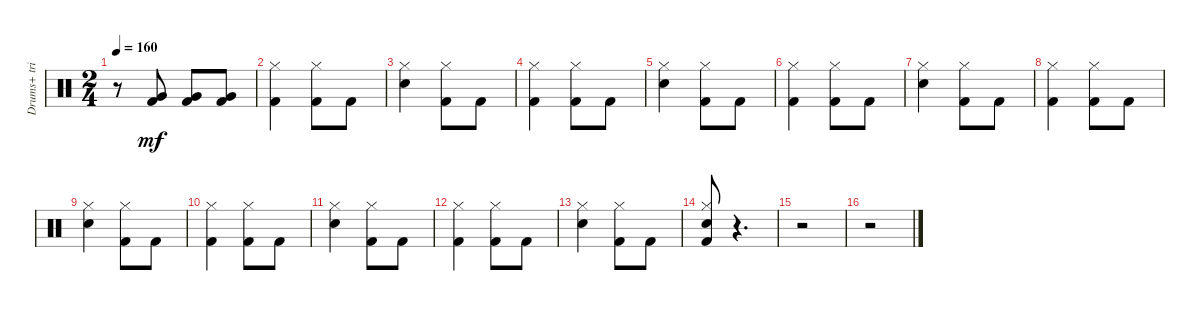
\track ("Drums+ triangle" "Drums+ tri") {instrument percussion}
\staff {score}
\articulation defaults
\ts (2 4)
\tempo 160
\clef neutral
\ks c
r.8{dy mf} ("Kick (hit) 2" "Very Low Tom (hit)").8 ("Kick (hit) 2" "Very Low Tom (hit)").8 ("Kick (hit) 2" "Very Low Tom (hit)").8 |
("Kick (hit) 2" "Hi-Hat (closed)").4 ("Kick (hit) 2" "Hi-Hat (closed)").8 "Kick (hit) 2".8 |
("Hi-Hat (closed)" "Snare (hit) 2").4 ("Hi-Hat (closed)" "Kick (hit) 2").8 "Kick (hit) 2".8 |
("Kick (hit) 2" "Hi-Hat (closed)").4 ("Kick (hit) 2" "Hi-Hat (closed)").8 "Kick (hit) 2".8 |
("Hi-Hat (closed)" "Snare (hit) 2").4 ("Hi-Hat (closed)" "Kick (hit) 2").8 "Kick (hit) 2".8 |
("Kick (hit) 2" "Hi-Hat (closed)").4 ("Kick (hit) 2" "Hi-Hat (closed)").8 "Kick (hit) 2".8 |
("Hi-Hat (closed)" "Snare (hit) 2").4 ("Hi-Hat (closed)" "Kick (hit) 2").8 "Kick (hit) 2".8 |
("Kick (hit) 2" "Hi-Hat (closed)").4 ("Kick (hit) 2" "Hi-Hat (closed)").8 "Kick (hit) 2".8 |
("Hi-Hat (closed)" "Snare (hit) 2").4 ("Hi-Hat (closed)" "Kick (hit) 2").8 "Kick (hit) 2".8 |
("Kick (hit) 2" "Hi-Hat (closed)").4 ("Kick (hit) 2" "Hi-Hat (closed)").8 "Kick (hit) 2".8 |
("Hi-Hat (closed)" "Snare (hit) 2").4 ("Hi-Hat (closed)" "Kick (hit) 2").8 "Kick (hit) 2".8 |
("Kick (hit) 2" "Hi-Hat (closed)").4 ("Kick (hit) 2" "Hi-Hat (closed)").8 "Kick (hit) 2".8 |
("Hi-Hat (closed)" "Snare (hit) 2").4 ("Hi-Hat (closed)" "Kick (hit) 2").8 "Kick (hit) 2".8 |
("Hi-Hat (closed)" "Snare (hit) 2" "Kick (hit) 2").8 r.4{d} |
r.2 |
r.2
